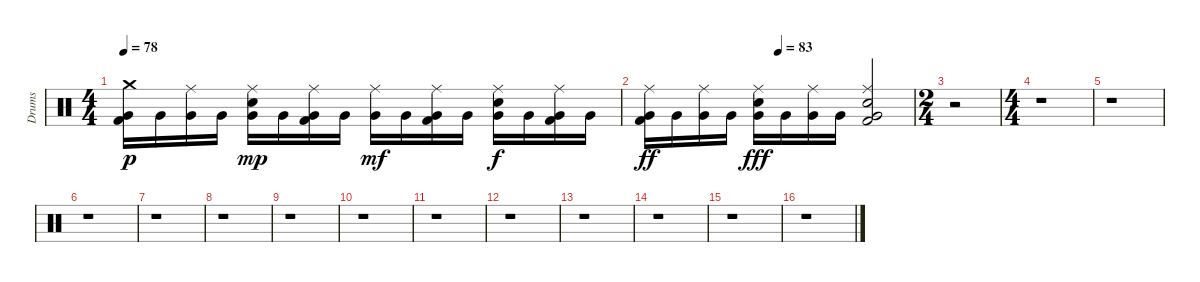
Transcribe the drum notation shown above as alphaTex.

\track ("Drums" "Drums") {instrument percussion}
\staff {score}
\articulation defaults
\ts (4 4)
\tempo 78
\clef neutral
\ks c
("Crash medium (hit)" "Very Low Tom (hit)" "Kick (hit) 2").16{dy p} "Very Low Tom (hit)".16 ("Ride (middle)" "Very Low Tom (hit)").16 "Very Low Tom (hit)".16 ("Ride (middle)" "Very Low Tom (hit)" "Electric Snare (hit)").16{dy mp} "Very Low Tom (hit)".16 ("Ride (middle)" "Very Low Tom (hit)" "Kick (hit) 2").16 "Very Low Tom (hit)".16 ("Ride (middle)" "Very Low Tom (hit)").16{dy mf} "Very Low Tom (hit)".16 ("Ride (middle)" "Very Low Tom (hit)" "Kick (hit) 2").16 "Very Low Tom (hit)".16 ("Ride (middle)" "Very Low Tom (hit)" "Electric Snare (hit)").16{dy f} "Very Low Tom (hit)".16 ("Ride (middle)" "Very Low Tom (hit)" "Kick (hit) 2").16 "Very Low Tom (hit)".16 |
\tempo (83 0.5)
("Ride (middle)" "Very Low Tom (hit)" "Kick (hit) 2").16{dy ff} "Very Low Tom (hit)".16 ("Ride (middle)" "Very Low Tom (hit)").16 "Very Low Tom (hit)".16 ("Ride (middle)" "Very Low Tom (hit)" "Electric Snare (hit)").16{dy fff} "Very Low Tom (hit)".16 ("Ride (middle)" "Very Low Tom (hit)").16 "Very Low Tom (hit)".16 ("Ride (middle)" "Very Low Tom (hit)" "Electric Snare (hit)" "Kick (hit) 2").2 |
\ts (2 4)
r.2 |
\ts (4 4)
r.1 |
r.1 |
r.1 |
r.1 |
r.1 |
r.1 |
r.1 |
r.1 |
r.1 |
r.1 |
r.1 |
r.1 |
r.1
